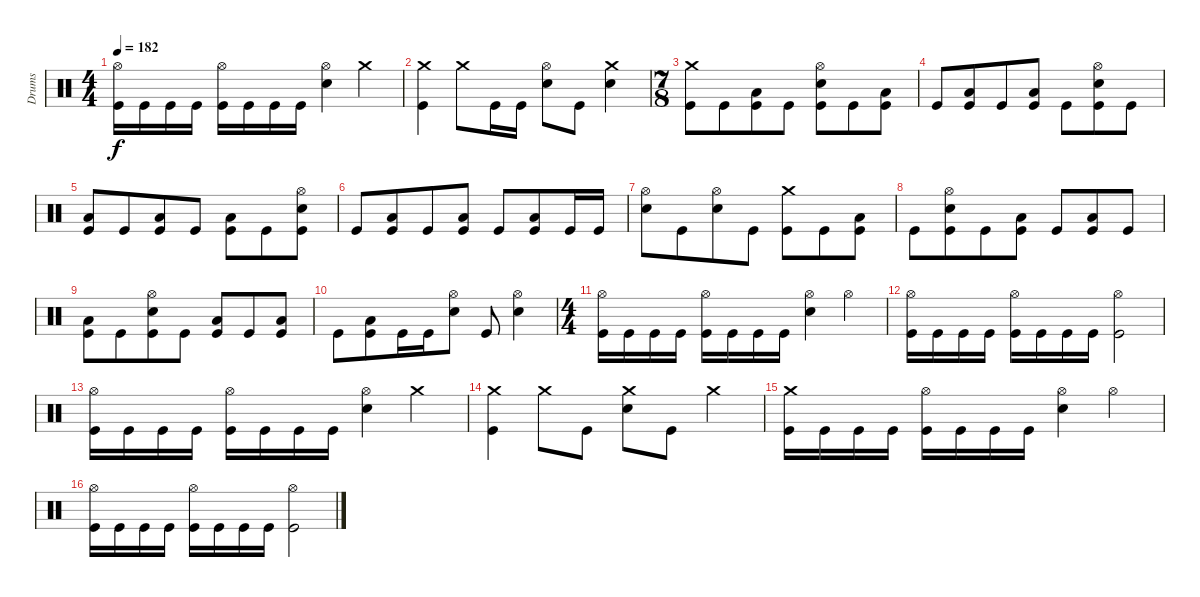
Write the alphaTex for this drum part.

\track ("Drums" "Drums") {instrument percussion}
\staff {score}
\articulation defaults
\ts (4 4)
\tempo 182
\clef neutral
\ks c
("Hi-Hat (open)" "Kick (hit)").16{dy f} "Kick (hit)".16 "Kick (hit)".16 "Kick (hit)".16 ("Hi-Hat (open)" "Kick (hit)").16 "Kick (hit)".16 "Kick (hit)".16 "Kick (hit)".16 ("Hi-Hat (open)" "Electric Snare (hit)").4 "Crash medium (hit)".4 |
("Crash medium (hit)" "Kick (hit)").4 "Crash medium (hit)".8 "Kick (hit)".16 "Kick (hit)".16 ("Hi-Hat (open)" "Electric Snare (hit)").8 "Kick (hit)".8 ("Crash medium (hit)" "Electric Snare (hit)").4 |
\ts (7 8)
("Crash medium (hit)" "Kick (hit)").8 "Kick (hit)".8 ("Low Floor Tom (hit)" "Kick (hit)").8 "Kick (hit)".8 ("Hi-Hat (open)" "Electric Snare (hit)" "Kick (hit)").8 "Kick (hit)".8 ("Low Floor Tom (hit)" "Kick (hit)").8 |
"Kick (hit)".8 ("Low Floor Tom (hit)" "Kick (hit)").8 "Kick (hit)".8 ("Low Floor Tom (hit)" "Kick (hit)").8 "Kick (hit)".8 ("Hi-Hat (open)" "Electric Snare (hit)" "Kick (hit)").8 "Kick (hit)".8 |
("Low Floor Tom (hit)" "Kick (hit)").8 "Kick (hit)".8 ("Low Floor Tom (hit)" "Kick (hit)").8 "Kick (hit)".8 ("Low Floor Tom (hit)" "Kick (hit)").8 "Kick (hit)".8 ("Hi-Hat (open)" "Electric Snare (hit)" "Kick (hit)").8 |
"Kick (hit)".8 ("Low Floor Tom (hit)" "Kick (hit)").8 "Kick (hit)".8 ("Low Floor Tom (hit)" "Kick (hit)").8 "Kick (hit)".8 ("Low Floor Tom (hit)" "Kick (hit)").8 "Kick (hit)".16 "Kick (hit)".16 |
("Hi-Hat (open)" "Electric Snare (hit)").8 "Kick (hit)".8 ("Hi-Hat (open)" "Electric Snare (hit)").8 "Kick (hit)".8 ("Crash medium (hit)" "Kick (hit)").8 "Kick (hit)".8 ("Low Floor Tom (hit)" "Kick (hit)").8 |
"Kick (hit)".8 ("Hi-Hat (open)" "Electric Snare (hit)" "Kick (hit)").8 "Kick (hit)".8 ("Low Floor Tom (hit)" "Kick (hit)").8 "Kick (hit)".8 ("Low Floor Tom (hit)" "Kick (hit)").8 "Kick (hit)".8 |
("Low Floor Tom (hit)" "Kick (hit)").8 "Kick (hit)".8 ("Hi-Hat (open)" "Electric Snare (hit)" "Kick (hit)").8 "Kick (hit)".8 ("Low Floor Tom (hit)" "Kick (hit)").8 "Kick (hit)".8 ("Low Floor Tom (hit)" "Kick (hit)").8 |
"Kick (hit)".8 ("Low Floor Tom (hit)" "Kick (hit)").8 "Kick (hit)".16 "Kick (hit)".16 ("Hi-Hat (open)" "Electric Snare (hit)").8 "Kick (hit)".8 ("Hi-Hat (open)" "Electric Snare (hit)").4 |
\ts (4 4)
("Hi-Hat (open)" "Kick (hit)").16 "Kick (hit)".16 "Kick (hit)".16 "Kick (hit)".16 ("Hi-Hat (open)" "Kick (hit)").16 "Kick (hit)".16 "Kick (hit)".16 "Kick (hit)".16 ("Hi-Hat (open)" "Electric Snare (hit)").4 "Hi-Hat (open)".4 |
("Hi-Hat (open)" "Kick (hit)").16 "Kick (hit)".16 "Kick (hit)".16 "Kick (hit)".16 ("Hi-Hat (open)" "Kick (hit)").16 "Kick (hit)".16 "Kick (hit)".16 "Kick (hit)".16 ("Hi-Hat (open)" "Kick (hit)").2 |
("Hi-Hat (open)" "Kick (hit)").16 "Kick (hit)".16 "Kick (hit)".16 "Kick (hit)".16 ("Hi-Hat (open)" "Kick (hit)").16 "Kick (hit)".16 "Kick (hit)".16 "Kick (hit)".16 ("Hi-Hat (open)" "Electric Snare (hit)").4 "Crash medium (hit)".4 |
("Crash medium (hit)" "Kick (hit)").4 "Crash medium (hit)".8 "Kick (hit)".8 ("Crash medium (hit)" "Electric Snare (hit)").8 "Kick (hit)".8 "Crash medium (hit)".4 |
("Crash medium (hit)" "Kick (hit)").16 "Kick (hit)".16 "Kick (hit)".16 "Kick (hit)".16 ("Hi-Hat (open)" "Kick (hit)").16 "Kick (hit)".16 "Kick (hit)".16 "Kick (hit)".16 ("Hi-Hat (open)" "Electric Snare (hit)").4 "Hi-Hat (open)".4 |
("Hi-Hat (open)" "Kick (hit)").16 "Kick (hit)".16 "Kick (hit)".16 "Kick (hit)".16 ("Hi-Hat (open)" "Kick (hit)").16 "Kick (hit)".16 "Kick (hit)".16 "Kick (hit)".16 ("Hi-Hat (open)" "Kick (hit)").2
